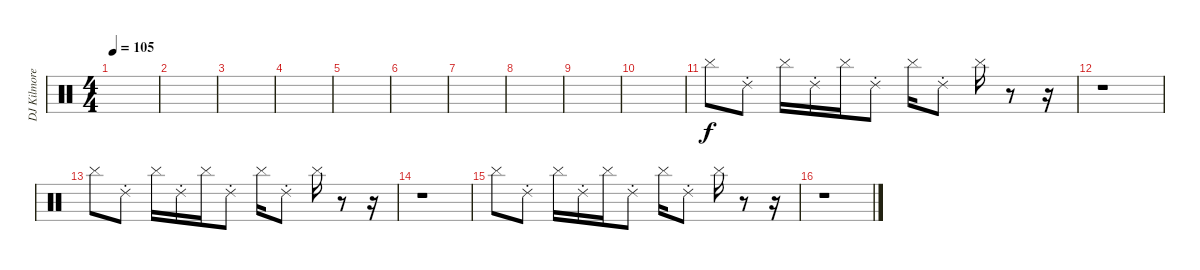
\track ("DJ Kilmore" "DJ Kilmore") {instrument percussion}
\staff {score}
\articulation defaults
\ts (4 4)
\tempo 105
\clef neutral
\ks c
|
|
|
|
|
|
|
|
|
|
"Cymbal (hit)".8 "Ride (choke) 2".8 "Cymbal (hit)".16 "Ride (choke) 2".16 "Cymbal (hit)".16 "Ride (choke) 2".8 "Cymbal (hit)".16 "Ride (choke) 2".8 "Cymbal (hit)".16 r.8 r.16 |
r.1 |
"Cymbal (hit)".8 "Ride (choke) 2".8 "Cymbal (hit)".16 "Ride (choke) 2".16 "Cymbal (hit)".16 "Ride (choke) 2".8 "Cymbal (hit)".16 "Ride (choke) 2".8 "Cymbal (hit)".16 r.8 r.16 |
r.1 |
"Cymbal (hit)".8 "Ride (choke) 2".8 "Cymbal (hit)".16 "Ride (choke) 2".16 "Cymbal (hit)".16 "Ride (choke) 2".8 "Cymbal (hit)".16 "Ride (choke) 2".8 "Cymbal (hit)".16 r.8 r.16 |
r.1
